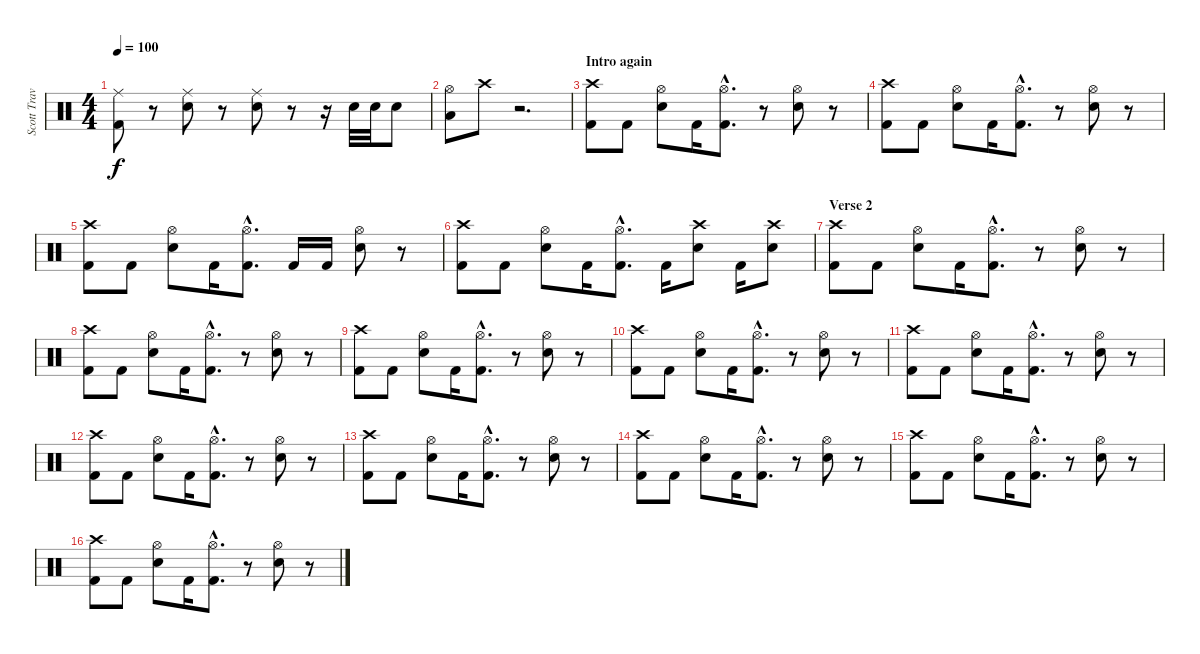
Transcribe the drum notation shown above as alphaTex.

\track ("Scott Travis" "Scott Trav") {instrument percussion}
\staff {score}
\articulation defaults
\ts (4 4)
\tempo 100
\clef neutral
\ks c
("Ride (middle)" "Kick (hit) 2").8{dy f} r.8 ("Ride (middle)" "Electric Snare (hit)").8 r.8 ("Ride (middle)" "Electric Snare (hit)").8 r.8 r.16 "Snare (hit) 2".32 "Snare (hit) 2".32 "Snare (hit) 2".8 |
("Hi-Hat (open)" "Low Floor Tom (hit)").8 "Crash high (hit)".8 r.2{d} |
\section ("" "Intro again")
("Crash high (hit)" "Kick (hit) 2").8 "Kick (hit) 2".8 ("Hi-Hat (open)" "Electric Snare (hit)").8 "Kick (hit) 2".16 ("Hi-Hat (open)"{hac} "Kick (hit) 2"{hac}).8{d} r.8 ("Hi-Hat (open)" "Electric Snare (hit)").8 r.8 |
("Crash high (hit)" "Kick (hit) 2").8 "Kick (hit) 2".8 ("Hi-Hat (open)" "Electric Snare (hit)").8 "Kick (hit) 2".16 ("Hi-Hat (open)"{hac} "Kick (hit) 2"{hac}).8{d} r.8 ("Hi-Hat (open)" "Electric Snare (hit)").8 r.8 |
("Crash high (hit)" "Kick (hit) 2").8 "Kick (hit) 2".8 ("Hi-Hat (open)" "Electric Snare (hit)").8 "Kick (hit) 2".16 ("Hi-Hat (open)"{hac} "Kick (hit) 2"{hac}).8{d} "Kick (hit) 2".16 "Kick (hit) 2".16 ("Hi-Hat (open)" "Electric Snare (hit)").8 r.8 |
("Crash high (hit)" "Kick (hit) 2").8 "Kick (hit) 2".8 ("Hi-Hat (open)" "Electric Snare (hit)").8 "Kick (hit) 2".16 ("Hi-Hat (open)"{hac} "Kick (hit) 2"{hac}).8{d} "Kick (hit) 2".16 ("Crash high (hit)" "Electric Snare (hit)").8 "Kick (hit) 2".16 ("Crash high (hit)" "Electric Snare (hit)").8 |
\section ("" "Verse 2")
("Crash high (hit)" "Kick (hit) 2").8 "Kick (hit) 2".8 ("Hi-Hat (open)" "Electric Snare (hit)").8 "Kick (hit) 2".16 ("Hi-Hat (open)"{hac} "Kick (hit) 2"{hac}).8{d} r.8 ("Hi-Hat (open)" "Electric Snare (hit)").8 r.8 |
("Crash high (hit)" "Kick (hit) 2").8 "Kick (hit) 2".8 ("Hi-Hat (open)" "Electric Snare (hit)").8 "Kick (hit) 2".16 ("Hi-Hat (open)"{hac} "Kick (hit) 2"{hac}).8{d} r.8 ("Hi-Hat (open)" "Electric Snare (hit)").8 r.8 |
("Crash high (hit)" "Kick (hit) 2").8 "Kick (hit) 2".8 ("Hi-Hat (open)" "Electric Snare (hit)").8 "Kick (hit) 2".16 ("Hi-Hat (open)"{hac} "Kick (hit) 2"{hac}).8{d} r.8 ("Hi-Hat (open)" "Electric Snare (hit)").8 r.8 |
("Crash high (hit)" "Kick (hit) 2").8 "Kick (hit) 2".8 ("Hi-Hat (open)" "Electric Snare (hit)").8 "Kick (hit) 2".16 ("Hi-Hat (open)"{hac} "Kick (hit) 2"{hac}).8{d} r.8 ("Hi-Hat (open)" "Electric Snare (hit)").8 r.8 |
("Crash high (hit)" "Kick (hit) 2").8 "Kick (hit) 2".8 ("Hi-Hat (open)" "Electric Snare (hit)").8 "Kick (hit) 2".16 ("Hi-Hat (open)"{hac} "Kick (hit) 2"{hac}).8{d} r.8 ("Hi-Hat (open)" "Electric Snare (hit)").8 r.8 |
("Crash high (hit)" "Kick (hit) 2").8 "Kick (hit) 2".8 ("Hi-Hat (open)" "Electric Snare (hit)").8 "Kick (hit) 2".16 ("Hi-Hat (open)"{hac} "Kick (hit) 2"{hac}).8{d} r.8 ("Hi-Hat (open)" "Electric Snare (hit)").8 r.8 |
("Crash high (hit)" "Kick (hit) 2").8 "Kick (hit) 2".8 ("Hi-Hat (open)" "Electric Snare (hit)").8 "Kick (hit) 2".16 ("Hi-Hat (open)"{hac} "Kick (hit) 2"{hac}).8{d} r.8 ("Hi-Hat (open)" "Electric Snare (hit)").8 r.8 |
("Crash high (hit)" "Kick (hit) 2").8 "Kick (hit) 2".8 ("Hi-Hat (open)" "Electric Snare (hit)").8 "Kick (hit) 2".16 ("Hi-Hat (open)"{hac} "Kick (hit) 2"{hac}).8{d} r.8 ("Hi-Hat (open)" "Electric Snare (hit)").8 r.8 |
("Crash high (hit)" "Kick (hit) 2").8 "Kick (hit) 2".8 ("Hi-Hat (open)" "Electric Snare (hit)").8 "Kick (hit) 2".16 ("Hi-Hat (open)"{hac} "Kick (hit) 2"{hac}).8{d} r.8 ("Hi-Hat (open)" "Electric Snare (hit)").8 r.8 |
("Crash high (hit)" "Kick (hit) 2").8 "Kick (hit) 2".8 ("Hi-Hat (open)" "Electric Snare (hit)").8 "Kick (hit) 2".16 ("Hi-Hat (open)"{hac} "Kick (hit) 2"{hac}).8{d} r.8 ("Hi-Hat (open)" "Electric Snare (hit)").8 r.8
